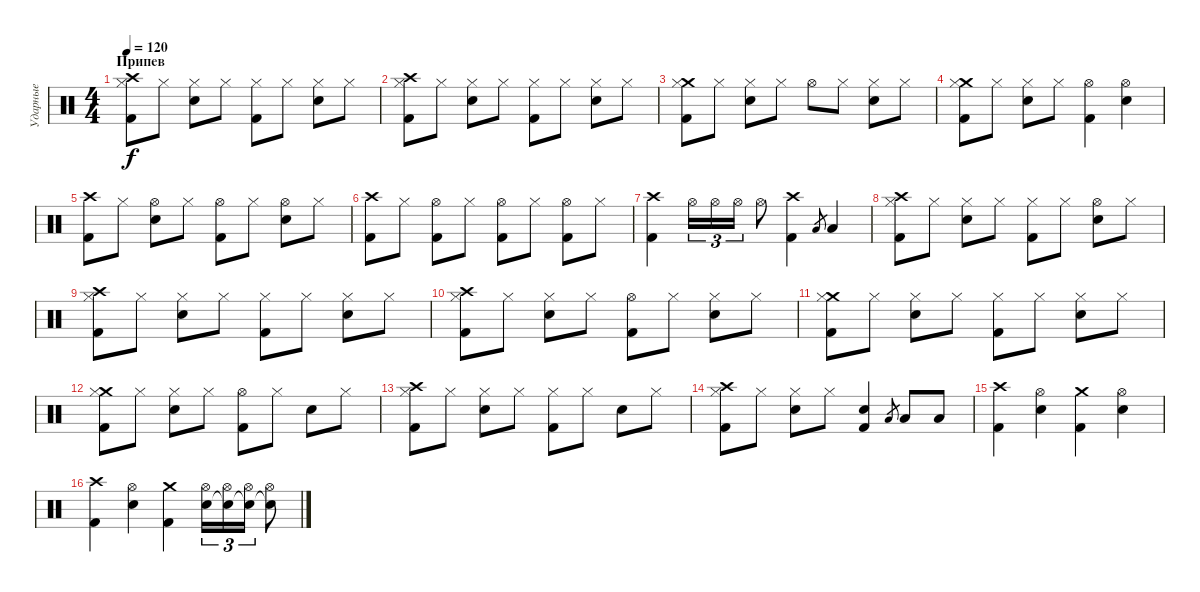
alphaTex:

\track ("Ударные" "Ударные") {instrument percussion}
\staff {score}
\articulation defaults
\ts (4 4)
\section ("" "Припев")
\tempo 120
\clef neutral
\ks c
("Crash high (hit)" "Hi-Hat (closed)" "Kick (hit) 2").8{dy f} "Hi-Hat (closed)".8 ("Hi-Hat (closed)" "Snare (hit) 2").8 "Hi-Hat (closed)".8 ("Hi-Hat (closed)" "Kick (hit) 2").8 "Hi-Hat (closed)".8 ("Hi-Hat (closed)" "Snare (hit) 2").8 "Hi-Hat (closed)".8 |
("Crash high (hit)" "Hi-Hat (closed)" "Kick (hit) 2").8 "Hi-Hat (closed)".8 ("Hi-Hat (closed)" "Snare (hit) 2").8 "Hi-Hat (closed)".8 ("Hi-Hat (closed)" "Kick (hit) 2").8 "Hi-Hat (closed)".8 ("Hi-Hat (closed)" "Snare (hit) 2").8 "Hi-Hat (closed)".8 |
("Crash medium (hit)" "Hi-Hat (closed)" "Kick (hit) 2").8 "Hi-Hat (closed)".8 ("Hi-Hat (closed)" "Snare (hit) 2").8 "Hi-Hat (closed)".8 "Hi-Hat (open)".8 "Hi-Hat (closed)".8 ("Hi-Hat (closed)" "Snare (hit) 2").8 "Hi-Hat (closed)".8 |
("Crash medium (hit)" "Hi-Hat (closed)" "Kick (hit) 2").8 "Hi-Hat (closed)".8 ("Hi-Hat (closed)" "Snare (hit) 2").8 "Hi-Hat (closed)".8 ("Hi-Hat (open)" "Kick (hit) 2").4 ("Hi-Hat (open)" "Snare (hit) 2").4 |
("Crash high (hit)" "Kick (hit) 2").8 "Hi-Hat (closed)".8 ("Hi-Hat (open)" "Snare (hit) 2").8 "Hi-Hat (closed)".8 ("Hi-Hat (open)" "Kick (hit) 2").8 "Hi-Hat (closed)".8 ("Hi-Hat (open)" "Snare (hit) 2").8 "Hi-Hat (closed)".8 |
("Crash high (hit)" "Kick (hit) 2").8 "Hi-Hat (closed)".8 ("Hi-Hat (open)" "Kick (hit) 2").8 "Hi-Hat (closed)".8 ("Hi-Hat (open)" "Kick (hit) 2").8 "Hi-Hat (closed)".8 ("Hi-Hat (open)" "Kick (hit) 2").8 "Hi-Hat (closed)".8 |
("Crash high (hit)" "Kick (hit) 2").4 "Hi-Hat (open)".16{tu (3 2)} "Hi-Hat (open)".16{tu (3 2)} "Hi-Hat (open)".16{tu (3 2)} "Hi-Hat (open)".8 ("Crash high (hit)" "Kick (hit) 2").4 "Low Floor Tom (hit)".8{gr} "Low Floor Tom (hit)".4 |
("Crash high (hit)" "Hi-Hat (closed)" "Kick (hit) 2").8 "Hi-Hat (closed)".8 ("Hi-Hat (closed)" "Snare (hit) 2").8 "Hi-Hat (closed)".8 ("Hi-Hat (closed)" "Kick (hit) 2").8 "Hi-Hat (closed)".8 ("Hi-Hat (open)" "Snare (hit) 2").8 "Hi-Hat (closed)".8 |
("Crash high (hit)" "Hi-Hat (closed)" "Kick (hit) 2").8 "Hi-Hat (closed)".8 ("Hi-Hat (closed)" "Snare (hit) 2").8 "Hi-Hat (closed)".8 ("Hi-Hat (closed)" "Kick (hit) 2").8 "Hi-Hat (closed)".8 ("Hi-Hat (closed)" "Snare (hit) 2").8 "Hi-Hat (closed)".8 |
("Crash high (hit)" "Hi-Hat (closed)" "Kick (hit) 2").8 "Hi-Hat (closed)".8 ("Hi-Hat (closed)" "Snare (hit) 2").8 "Hi-Hat (closed)".8 ("Hi-Hat (open)" "Kick (hit) 2").8 "Hi-Hat (closed)".8 ("Hi-Hat (closed)" "Snare (hit) 2").8 "Hi-Hat (closed)".8 |
("Crash medium (hit)" "Hi-Hat (closed)" "Kick (hit) 2").8 "Hi-Hat (closed)".8 ("Hi-Hat (closed)" "Snare (hit) 2").8 "Hi-Hat (closed)".8 ("Hi-Hat (closed)" "Kick (hit) 2").8 "Hi-Hat (closed)".8 ("Hi-Hat (closed)" "Snare (hit) 2").8 "Hi-Hat (closed)".8 |
("Crash medium (hit)" "Hi-Hat (closed)" "Kick (hit) 2").8 "Hi-Hat (closed)".8 ("Hi-Hat (closed)" "Snare (hit) 2").8 "Hi-Hat (closed)".8 ("Hi-Hat (open)" "Kick (hit) 2").8 "Hi-Hat (closed)".8 "Snare (hit) 2".8 "Hi-Hat (closed)".8 |
("Crash high (hit)" "Hi-Hat (closed)" "Kick (hit) 2").8 "Hi-Hat (closed)".8 ("Hi-Hat (closed)" "Snare (hit) 2").8 "Hi-Hat (closed)".8 ("Hi-Hat (closed)" "Kick (hit) 2").8 "Hi-Hat (closed)".8 "Snare (hit) 2".8 "Hi-Hat (closed)".8 |
("Crash high (hit)" "Hi-Hat (closed)" "Kick (hit) 2").8 "Hi-Hat (closed)".8 ("Hi-Hat (closed)" "Snare (hit) 2").8 "Hi-Hat (closed)".8 ("Snare (hit) 2" "Kick (hit) 2").4 "Low Floor Tom (hit)".8{gr} "Low Floor Tom (hit)".8 "Low Floor Tom (hit)".8 |
("Crash high (hit)" "Kick (hit) 2").4 ("Hi-Hat (open)" "Snare (hit) 2").4 ("Crash medium (hit)" "Kick (hit) 2").4 ("Hi-Hat (open)" "Snare (hit) 2").4 |
("Crash high (hit)" "Kick (hit) 2").4 ("Hi-Hat (open)" "Snare (hit) 2").4 ("Crash medium (hit)" "Kick (hit) 2").4 ("Hi-Hat (open)" "Snare (hit) 2").16{tu (3 2)} ("Hi-Hat (open)" "Snare (hit)"{t}).16{tu (3 2)} ("Hi-Hat (open)" "Snare (hit) 2"{t}).16{tu (3 2)} ("Hi-Hat (open)" "Snare (hit)"{t}).8
